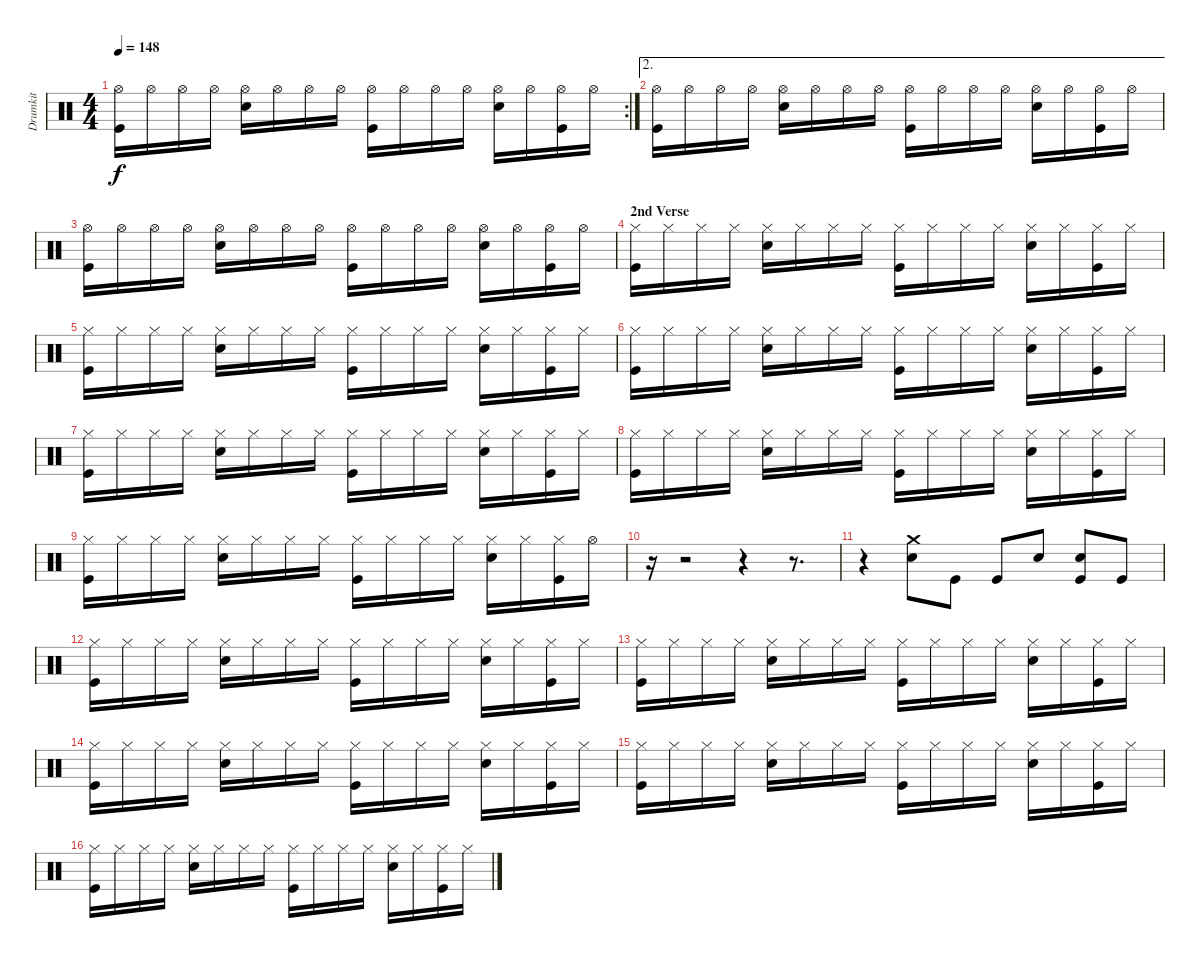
\track ("Drumkit" "Drumkit") {instrument percussion}
\staff {score}
\articulation defaults
\rc 2
\ts (4 4)
\tempo 148
\clef neutral
\ks c
("Hi-Hat (open)" "Kick (hit)").16{dy f} "Hi-Hat (open)".16 "Hi-Hat (open)".16 "Hi-Hat (open)".16 ("Hi-Hat (open)" "Snare (hit) 2").16 "Hi-Hat (open)".16 "Hi-Hat (open)".16 "Hi-Hat (open)".16 ("Hi-Hat (open)" "Kick (hit)").16 "Hi-Hat (open)".16 "Hi-Hat (open)".16 "Hi-Hat (open)".16 ("Hi-Hat (open)" "Snare (hit) 2").16 "Hi-Hat (open)".16 ("Hi-Hat (open)" "Kick (hit)").16 "Hi-Hat (open)".16 |
\ae 2
("Hi-Hat (open)" "Kick (hit)").16 "Hi-Hat (open)".16 "Hi-Hat (open)".16 "Hi-Hat (open)".16 ("Hi-Hat (open)" "Snare (hit) 2").16 "Hi-Hat (open)".16 "Hi-Hat (open)".16 "Hi-Hat (open)".16 ("Hi-Hat (open)" "Kick (hit)").16 "Hi-Hat (open)".16 "Hi-Hat (open)".16 "Hi-Hat (open)".16 ("Hi-Hat (open)" "Snare (hit) 2").16 "Hi-Hat (open)".16 ("Hi-Hat (open)" "Kick (hit)").16 "Hi-Hat (open)".16 |
("Hi-Hat (open)" "Kick (hit)").16 "Hi-Hat (open)".16 "Hi-Hat (open)".16 "Hi-Hat (open)".16 ("Hi-Hat (open)" "Snare (hit) 2").16 "Hi-Hat (open)".16 "Hi-Hat (open)".16 "Hi-Hat (open)".16 ("Hi-Hat (open)" "Kick (hit)").16 "Hi-Hat (open)".16 "Hi-Hat (open)".16 "Hi-Hat (open)".16 ("Hi-Hat (open)" "Snare (hit) 2").16 "Hi-Hat (open)".16 ("Hi-Hat (open)" "Kick (hit)").16 "Hi-Hat (open)".16 |
\section ("" "2nd Verse")
("Hi-Hat (closed)" "Kick (hit)").16 "Hi-Hat (closed)".16 "Hi-Hat (closed)".16 "Hi-Hat (closed)".16 ("Hi-Hat (closed)" "Snare (hit) 2").16 "Hi-Hat (closed)".16 "Hi-Hat (closed)".16 "Hi-Hat (closed)".16 ("Hi-Hat (closed)" "Kick (hit)").16 "Hi-Hat (closed)".16 "Hi-Hat (closed)".16 "Hi-Hat (closed)".16 ("Hi-Hat (closed)" "Snare (hit) 2").16 "Hi-Hat (closed)".16 ("Hi-Hat (closed)" "Kick (hit)").16 "Hi-Hat (closed)".16 |
("Hi-Hat (closed)" "Kick (hit)").16 "Hi-Hat (closed)".16 "Hi-Hat (closed)".16 "Hi-Hat (closed)".16 ("Hi-Hat (closed)" "Snare (hit) 2").16 "Hi-Hat (closed)".16 "Hi-Hat (closed)".16 "Hi-Hat (closed)".16 ("Hi-Hat (closed)" "Kick (hit)").16 "Hi-Hat (closed)".16 "Hi-Hat (closed)".16 "Hi-Hat (closed)".16 ("Hi-Hat (closed)" "Snare (hit) 2").16 "Hi-Hat (closed)".16 ("Hi-Hat (closed)" "Kick (hit)").16 "Hi-Hat (closed)".16 |
("Hi-Hat (closed)" "Kick (hit)").16 "Hi-Hat (closed)".16 "Hi-Hat (closed)".16 "Hi-Hat (closed)".16 ("Hi-Hat (closed)" "Snare (hit) 2").16 "Hi-Hat (closed)".16 "Hi-Hat (closed)".16 "Hi-Hat (closed)".16 ("Hi-Hat (closed)" "Kick (hit)").16 "Hi-Hat (closed)".16 "Hi-Hat (closed)".16 "Hi-Hat (closed)".16 ("Hi-Hat (closed)" "Snare (hit) 2").16 "Hi-Hat (closed)".16 ("Hi-Hat (closed)" "Kick (hit)").16 "Hi-Hat (closed)".16 |
("Hi-Hat (closed)" "Kick (hit)").16 "Hi-Hat (closed)".16 "Hi-Hat (closed)".16 "Hi-Hat (closed)".16 ("Hi-Hat (closed)" "Snare (hit) 2").16 "Hi-Hat (closed)".16 "Hi-Hat (closed)".16 "Hi-Hat (closed)".16 ("Hi-Hat (closed)" "Kick (hit)").16 "Hi-Hat (closed)".16 "Hi-Hat (closed)".16 "Hi-Hat (closed)".16 ("Hi-Hat (closed)" "Snare (hit) 2").16 "Hi-Hat (closed)".16 ("Hi-Hat (closed)" "Kick (hit)").16 "Hi-Hat (closed)".16 |
("Hi-Hat (closed)" "Kick (hit)").16 "Hi-Hat (closed)".16 "Hi-Hat (closed)".16 "Hi-Hat (closed)".16 ("Hi-Hat (closed)" "Snare (hit) 2").16 "Hi-Hat (closed)".16 "Hi-Hat (closed)".16 "Hi-Hat (closed)".16 ("Hi-Hat (closed)" "Kick (hit)").16 "Hi-Hat (closed)".16 "Hi-Hat (closed)".16 "Hi-Hat (closed)".16 ("Hi-Hat (closed)" "Snare (hit) 2").16 "Hi-Hat (closed)".16 ("Hi-Hat (closed)" "Kick (hit)").16 "Hi-Hat (closed)".16 |
("Hi-Hat (closed)" "Kick (hit)").16 "Hi-Hat (closed)".16 "Hi-Hat (closed)".16 "Hi-Hat (closed)".16 ("Hi-Hat (closed)" "Snare (hit) 2").16 "Hi-Hat (closed)".16 "Hi-Hat (closed)".16 "Hi-Hat (closed)".16 ("Hi-Hat (closed)" "Kick (hit)").16 "Hi-Hat (closed)".16 "Hi-Hat (closed)".16 "Hi-Hat (closed)".16 ("Hi-Hat (closed)" "Snare (hit) 2").16 "Hi-Hat (closed)".16 ("Hi-Hat (closed)" "Kick (hit)").16 "Hi-Hat (open)".16 |
r.16 r.2 r.4 r.8{d} |
r.4 ("Crash medium (hit)" "Snare (hit) 2").8 "Kick (hit)".8 "Kick (hit)".8 "Snare (hit) 2".8 ("Snare (hit) 2" "Kick (hit)").8 "Kick (hit)".8 |
("Hi-Hat (closed)" "Kick (hit)").16 "Hi-Hat (closed)".16 "Hi-Hat (closed)".16 "Hi-Hat (closed)".16 ("Hi-Hat (closed)" "Snare (hit) 2").16 "Hi-Hat (closed)".16 "Hi-Hat (closed)".16 "Hi-Hat (closed)".16 ("Hi-Hat (closed)" "Kick (hit)").16 "Hi-Hat (closed)".16 "Hi-Hat (closed)".16 "Hi-Hat (closed)".16 ("Hi-Hat (closed)" "Snare (hit) 2").16 "Hi-Hat (closed)".16 ("Hi-Hat (closed)" "Kick (hit)").16 "Hi-Hat (closed)".16 |
("Hi-Hat (closed)" "Kick (hit)").16 "Hi-Hat (closed)".16 "Hi-Hat (closed)".16 "Hi-Hat (closed)".16 ("Hi-Hat (closed)" "Snare (hit) 2").16 "Hi-Hat (closed)".16 "Hi-Hat (closed)".16 "Hi-Hat (closed)".16 ("Hi-Hat (closed)" "Kick (hit)").16 "Hi-Hat (closed)".16 "Hi-Hat (closed)".16 "Hi-Hat (closed)".16 ("Hi-Hat (closed)" "Snare (hit) 2").16 "Hi-Hat (closed)".16 ("Hi-Hat (closed)" "Kick (hit)").16 "Hi-Hat (closed)".16 |
("Hi-Hat (closed)" "Kick (hit)").16 "Hi-Hat (closed)".16 "Hi-Hat (closed)".16 "Hi-Hat (closed)".16 ("Hi-Hat (closed)" "Snare (hit) 2").16 "Hi-Hat (closed)".16 "Hi-Hat (closed)".16 "Hi-Hat (closed)".16 ("Hi-Hat (closed)" "Kick (hit)").16 "Hi-Hat (closed)".16 "Hi-Hat (closed)".16 "Hi-Hat (closed)".16 ("Hi-Hat (closed)" "Snare (hit) 2").16 "Hi-Hat (closed)".16 ("Hi-Hat (closed)" "Kick (hit)").16 "Hi-Hat (closed)".16 |
("Hi-Hat (closed)" "Kick (hit)").16 "Hi-Hat (closed)".16 "Hi-Hat (closed)".16 "Hi-Hat (closed)".16 ("Hi-Hat (closed)" "Snare (hit) 2").16 "Hi-Hat (closed)".16 "Hi-Hat (closed)".16 "Hi-Hat (closed)".16 ("Hi-Hat (closed)" "Kick (hit)").16 "Hi-Hat (closed)".16 "Hi-Hat (closed)".16 "Hi-Hat (closed)".16 ("Hi-Hat (closed)" "Snare (hit) 2").16 "Hi-Hat (closed)".16 ("Hi-Hat (closed)" "Kick (hit)").16 "Hi-Hat (closed)".16 |
("Hi-Hat (closed)" "Kick (hit)").16 "Hi-Hat (closed)".16 "Hi-Hat (closed)".16 "Hi-Hat (closed)".16 ("Hi-Hat (closed)" "Snare (hit) 2").16 "Hi-Hat (closed)".16 "Hi-Hat (closed)".16 "Hi-Hat (closed)".16 ("Hi-Hat (closed)" "Kick (hit)").16 "Hi-Hat (closed)".16 "Hi-Hat (closed)".16 "Hi-Hat (closed)".16 ("Hi-Hat (closed)" "Snare (hit) 2").16 "Hi-Hat (closed)".16 ("Hi-Hat (closed)" "Kick (hit)").16 "Hi-Hat (closed)".16
